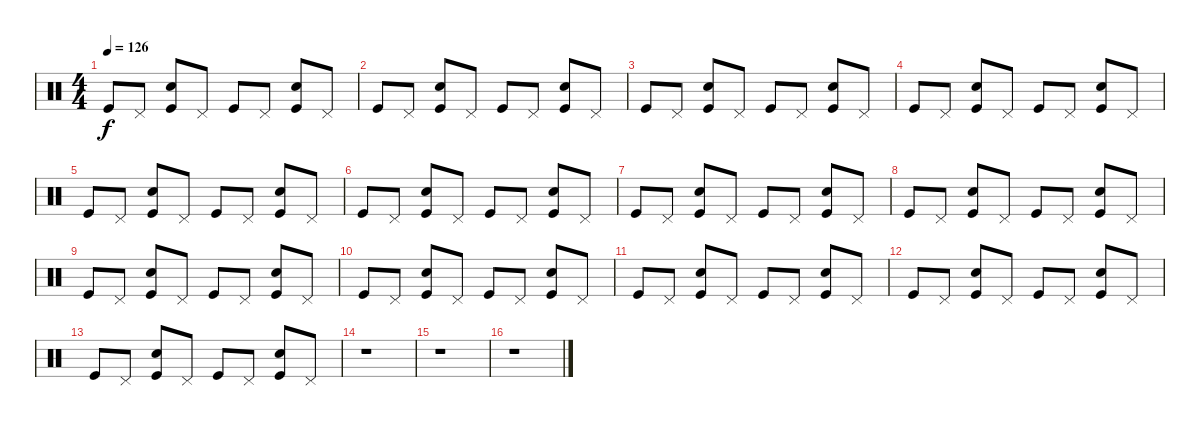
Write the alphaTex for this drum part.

\track "" {instrument percussion}
\staff {score}
\articulation defaults
\ts (4 4)
\tempo 126
\clef neutral
\ks c "Kick (hit)".8{dy f} "Pedal Hi-Hat (hit)".8
("Kick (hit)" "Hand Clap (hit)").8 "Pedal Hi-Hat (hit)".8 "Kick (hit)".8 "Pedal Hi-Hat (hit)".8 ("Kick (hit)" "Hand Clap (hit)").8 "Pedal Hi-Hat (hit)".8 |
"Kick (hit)".8 "Pedal Hi-Hat (hit)".8 ("Kick (hit)" "Hand Clap (hit)").8 "Pedal Hi-Hat (hit)".8 "Kick (hit)".8 "Pedal Hi-Hat (hit)".8 ("Kick (hit)" "Hand Clap (hit)").8 "Pedal Hi-Hat (hit)".8 |
"Kick (hit)".8 "Pedal Hi-Hat (hit)".8 ("Kick (hit)" "Hand Clap (hit)").8 "Pedal Hi-Hat (hit)".8 "Kick (hit)".8 "Pedal Hi-Hat (hit)".8 ("Kick (hit)" "Hand Clap (hit)").8 "Pedal Hi-Hat (hit)".8 |
"Kick (hit)".8 "Pedal Hi-Hat (hit)".8 ("Kick (hit)" "Hand Clap (hit)").8 "Pedal Hi-Hat (hit)".8 "Kick (hit)".8 "Pedal Hi-Hat (hit)".8 ("Kick (hit)" "Hand Clap (hit)").8 "Pedal Hi-Hat (hit)".8 |
"Kick (hit)".8 "Pedal Hi-Hat (hit)".8 ("Kick (hit)" "Hand Clap (hit)").8 "Pedal Hi-Hat (hit)".8 "Kick (hit)".8 "Pedal Hi-Hat (hit)".8 ("Kick (hit)" "Hand Clap (hit)").8 "Pedal Hi-Hat (hit)".8 |
"Kick (hit)".8 "Pedal Hi-Hat (hit)".8 ("Kick (hit)" "Hand Clap (hit)").8 "Pedal Hi-Hat (hit)".8 "Kick (hit)".8 "Pedal Hi-Hat (hit)".8 ("Kick (hit)" "Hand Clap (hit)").8 "Pedal Hi-Hat (hit)".8 |
"Kick (hit)".8 "Pedal Hi-Hat (hit)".8 ("Kick (hit)" "Hand Clap (hit)").8 "Pedal Hi-Hat (hit)".8 "Kick (hit)".8 "Pedal Hi-Hat (hit)".8 ("Kick (hit)" "Hand Clap (hit)").8 "Pedal Hi-Hat (hit)".8 |
"Kick (hit)".8 "Pedal Hi-Hat (hit)".8 ("Kick (hit)" "Hand Clap (hit)").8 "Pedal Hi-Hat (hit)".8 "Kick (hit)".8 "Pedal Hi-Hat (hit)".8 ("Kick (hit)" "Hand Clap (hit)").8 "Pedal Hi-Hat (hit)".8 |
"Kick (hit)".8 "Pedal Hi-Hat (hit)".8 ("Kick (hit)" "Hand Clap (hit)").8 "Pedal Hi-Hat (hit)".8 "Kick (hit)".8 "Pedal Hi-Hat (hit)".8 ("Kick (hit)" "Hand Clap (hit)").8 "Pedal Hi-Hat (hit)".8 |
"Kick (hit)".8 "Pedal Hi-Hat (hit)".8 ("Kick (hit)" "Hand Clap (hit)").8 "Pedal Hi-Hat (hit)".8 "Kick (hit)".8 "Pedal Hi-Hat (hit)".8 ("Kick (hit)" "Hand Clap (hit)").8 "Pedal Hi-Hat (hit)".8 |
"Kick (hit)".8 "Pedal Hi-Hat (hit)".8 ("Kick (hit)" "Hand Clap (hit)").8 "Pedal Hi-Hat (hit)".8 "Kick (hit)".8 "Pedal Hi-Hat (hit)".8 ("Kick (hit)" "Hand Clap (hit)").8 "Pedal Hi-Hat (hit)".8 |
"Kick (hit)".8 "Pedal Hi-Hat (hit)".8 ("Kick (hit)" "Hand Clap (hit)").8 "Pedal Hi-Hat (hit)".8 "Kick (hit)".8 "Pedal Hi-Hat (hit)".8 ("Kick (hit)" "Hand Clap (hit)").8 "Pedal Hi-Hat (hit)".8 |
"Kick (hit)".8 "Pedal Hi-Hat (hit)".8 ("Kick (hit)" "Hand Clap (hit)").8 "Pedal Hi-Hat (hit)".8 "Kick (hit)".8 "Pedal Hi-Hat (hit)".8 ("Kick (hit)" "Hand Clap (hit)").8 "Pedal Hi-Hat (hit)".8 |
r.1 |
r.1 |
r.1
